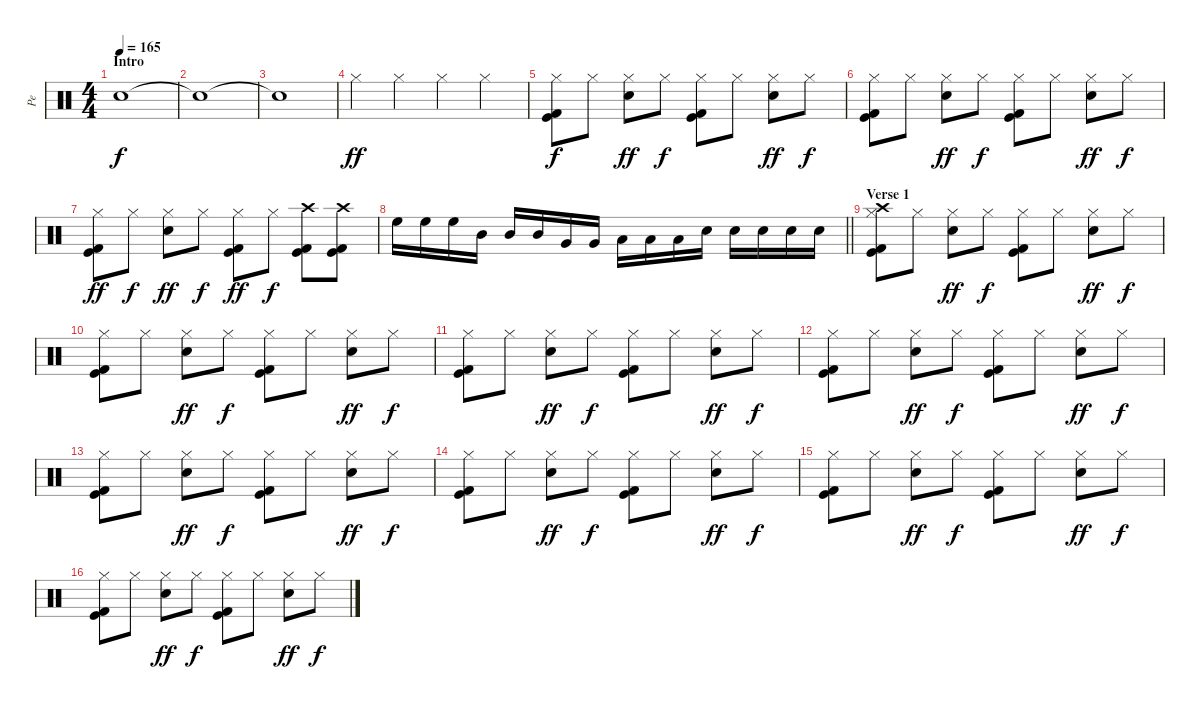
\track ("Pe" "Pe") {instrument percussion}
\staff {score}
\articulation defaults
\ts (4 4)
\section ("" "Intro")
\tempo 165
\clef neutral
\ks c "Snare (hit)".1{dy f volume 15}
|
"Snare (hit)"{t}.1 |
"Snare (hit)"{t}.1 |
"Hi-Hat (closed)".4{dy ff} "Hi-Hat (closed)".4 "Hi-Hat (closed)".4 "Hi-Hat (closed)".4 |
("Kick (hit)" "Hi-Hat (closed)" "Kick (hit) 2").8{dy f} "Hi-Hat (closed)".8 ("Electric Snare (hit)" "Hi-Hat (closed)").8{dy ff} "Hi-Hat (closed)".8{dy f} ("Kick (hit)" "Hi-Hat (closed)" "Kick (hit) 2").8 "Hi-Hat (closed)".8 ("Electric Snare (hit)" "Hi-Hat (closed)").8{dy ff} "Hi-Hat (closed)".8{dy f} |
("Kick (hit)" "Hi-Hat (closed)" "Kick (hit) 2").8 "Hi-Hat (closed)".8 ("Electric Snare (hit)" "Hi-Hat (closed)").8{dy ff} "Hi-Hat (closed)".8{dy f} ("Kick (hit)" "Hi-Hat (closed)" "Kick (hit) 2").8 "Hi-Hat (closed)".8 ("Electric Snare (hit)" "Hi-Hat (closed)").8{dy ff} "Hi-Hat (closed)".8{dy f} |
("Kick (hit)" "Hi-Hat (closed)" "Kick (hit) 2").8{dy ff} "Hi-Hat (closed)".8{dy f} ("Electric Snare (hit)" "Hi-Hat (closed)").8{dy ff} "Hi-Hat (closed)".8{dy f} ("Kick (hit)" "Hi-Hat (closed)" "Kick (hit) 2").8{dy ff} "Hi-Hat (closed)".8{dy f} ("Crash high (hit)" "Kick (hit)" "Kick (hit) 2").8 ("Crash high (hit)" "Kick (hit)" "Kick (hit) 2").8 |
\barLineRight lightlight "High Floor Tom (hit)".16 "High Floor Tom (hit)".16 "High Floor Tom (hit)".16 "Mid Tom (hit)".16 "Mid Tom (hit)".16 "Mid Tom (hit)".16 "Very Low Tom (hit)".16 "Very Low Tom (hit)".16 "Low Floor Tom (hit)".16 "Low Floor Tom (hit)".16 "Low Floor Tom (hit)".16 "Electric Snare (hit)".16 "Electric Snare (hit)".16 "Electric Snare (hit)".16 "Electric Snare (hit)".16 "Electric Snare (hit)".16
|
\section ("" "Verse 1")
("Kick (hit)" "Hi-Hat (closed)" "Kick (hit) 2" "Crash high (hit)").8 "Hi-Hat (closed)".8 ("Electric Snare (hit)" "Hi-Hat (closed)").8{dy ff} "Hi-Hat (closed)".8{dy f} ("Kick (hit)" "Hi-Hat (closed)" "Kick (hit) 2").8 "Hi-Hat (closed)".8 ("Electric Snare (hit)" "Hi-Hat (closed)").8{dy ff} "Hi-Hat (closed)".8{dy f} |
("Kick (hit)" "Hi-Hat (closed)" "Kick (hit) 2").8 "Hi-Hat (closed)".8 ("Electric Snare (hit)" "Hi-Hat (closed)").8{dy ff} "Hi-Hat (closed)".8{dy f} ("Kick (hit)" "Hi-Hat (closed)" "Kick (hit) 2").8 "Hi-Hat (closed)".8 ("Electric Snare (hit)" "Hi-Hat (closed)").8{dy ff} "Hi-Hat (closed)".8{dy f} |
("Kick (hit)" "Hi-Hat (closed)" "Kick (hit) 2").8 "Hi-Hat (closed)".8 ("Electric Snare (hit)" "Hi-Hat (closed)").8{dy ff} "Hi-Hat (closed)".8{dy f} ("Kick (hit)" "Hi-Hat (closed)" "Kick (hit) 2").8 "Hi-Hat (closed)".8 ("Electric Snare (hit)" "Hi-Hat (closed)").8{dy ff} "Hi-Hat (closed)".8{dy f} |
("Kick (hit)" "Hi-Hat (closed)" "Kick (hit) 2").8 "Hi-Hat (closed)".8 ("Electric Snare (hit)" "Hi-Hat (closed)").8{dy ff} "Hi-Hat (closed)".8{dy f} ("Kick (hit)" "Hi-Hat (closed)" "Kick (hit) 2").8 "Hi-Hat (closed)".8 ("Electric Snare (hit)" "Hi-Hat (closed)").8{dy ff} "Hi-Hat (closed)".8{dy f} |
("Kick (hit)" "Hi-Hat (closed)" "Kick (hit) 2").8 "Hi-Hat (closed)".8 ("Electric Snare (hit)" "Hi-Hat (closed)").8{dy ff} "Hi-Hat (closed)".8{dy f} ("Kick (hit)" "Hi-Hat (closed)" "Kick (hit) 2").8 "Hi-Hat (closed)".8 ("Electric Snare (hit)" "Hi-Hat (closed)").8{dy ff} "Hi-Hat (closed)".8{dy f} |
("Kick (hit)" "Hi-Hat (closed)" "Kick (hit) 2").8 "Hi-Hat (closed)".8 ("Electric Snare (hit)" "Hi-Hat (closed)").8{dy ff} "Hi-Hat (closed)".8{dy f} ("Kick (hit)" "Hi-Hat (closed)" "Kick (hit) 2").8 "Hi-Hat (closed)".8 ("Electric Snare (hit)" "Hi-Hat (closed)").8{dy ff} "Hi-Hat (closed)".8{dy f} |
("Kick (hit)" "Hi-Hat (closed)" "Kick (hit) 2").8 "Hi-Hat (closed)".8 ("Electric Snare (hit)" "Hi-Hat (closed)").8{dy ff} "Hi-Hat (closed)".8{dy f} ("Kick (hit)" "Hi-Hat (closed)" "Kick (hit) 2").8 "Hi-Hat (closed)".8 ("Electric Snare (hit)" "Hi-Hat (closed)").8{dy ff} "Hi-Hat (closed)".8{dy f} |
("Kick (hit)" "Hi-Hat (closed)" "Kick (hit) 2").8 "Hi-Hat (closed)".8 ("Electric Snare (hit)" "Hi-Hat (closed)").8{dy ff} "Hi-Hat (closed)".8{dy f} ("Kick (hit)" "Hi-Hat (closed)" "Kick (hit) 2").8 "Hi-Hat (closed)".8 ("Electric Snare (hit)" "Hi-Hat (closed)").8{dy ff} "Hi-Hat (closed)".8{dy f}
